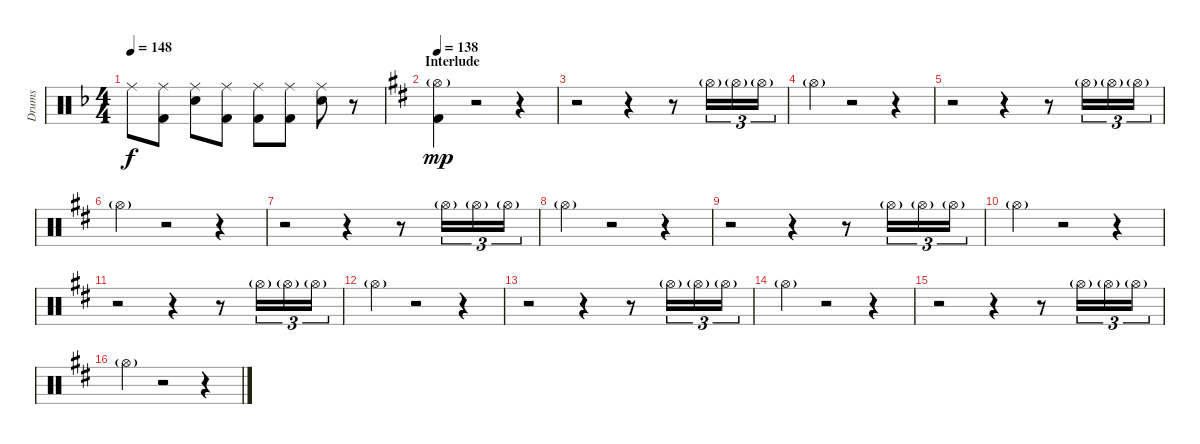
\track ("Drums" "Drums") {instrument percussion}
\staff {score}
\articulation defaults
\ts (4 4)
\tempo 148
\clef neutral
\ks dminor "Ride (middle)".8{dy f}
("Ride (middle)" "Kick (hit) 2").8 ("Ride (middle)" "Snare (hit) 2").8 ("Ride (middle)" "Kick (hit) 2").8 ("Ride (middle)" "Kick (hit) 2").8 ("Ride (middle)" "Kick (hit) 2").8 ("Ride (middle)" "Snare (hit) 2").8 r.8 |
\section ("" "Interlude")
\tempo 138
\ks d
("Hi-Hat (open)"{g} "Kick (hit) 2").4{dy mp} r.2 r.4 |
r.2 r.4 r.8 "Hi-Hat (open)"{g}.16{tu (3 2)} "Hi-Hat (open)"{g}.16{tu (3 2)} "Hi-Hat (open)"{g}.16{tu (3 2)} |
"Hi-Hat (open)"{g}.4 r.2 r.4 |
r.2 r.4 r.8 "Hi-Hat (open)"{g}.16{tu (3 2)} "Hi-Hat (open)"{g}.16{tu (3 2)} "Hi-Hat (open)"{g}.16{tu (3 2)} |
"Hi-Hat (open)"{g}.4 r.2 r.4 |
r.2 r.4 r.8 "Hi-Hat (open)"{g}.16{tu (3 2)} "Hi-Hat (open)"{g}.16{tu (3 2)} "Hi-Hat (open)"{g}.16{tu (3 2)} |
"Hi-Hat (open)"{g}.4 r.2 r.4 |
r.2 r.4 r.8 "Hi-Hat (open)"{g}.16{tu (3 2)} "Hi-Hat (open)"{g}.16{tu (3 2)} "Hi-Hat (open)"{g}.16{tu (3 2)} |
"Hi-Hat (open)"{g}.4 r.2 r.4 |
r.2 r.4 r.8 "Hi-Hat (open)"{g}.16{tu (3 2)} "Hi-Hat (open)"{g}.16{tu (3 2)} "Hi-Hat (open)"{g}.16{tu (3 2)} |
"Hi-Hat (open)"{g}.4 r.2 r.4 |
r.2 r.4 r.8 "Hi-Hat (open)"{g}.16{tu (3 2)} "Hi-Hat (open)"{g}.16{tu (3 2)} "Hi-Hat (open)"{g}.16{tu (3 2)} |
"Hi-Hat (open)"{g}.4 r.2 r.4 |
r.2 r.4 r.8 "Hi-Hat (open)"{g}.16{tu (3 2)} "Hi-Hat (open)"{g}.16{tu (3 2)} "Hi-Hat (open)"{g}.16{tu (3 2)} |
"Hi-Hat (open)"{g}.4 r.2 r.4
